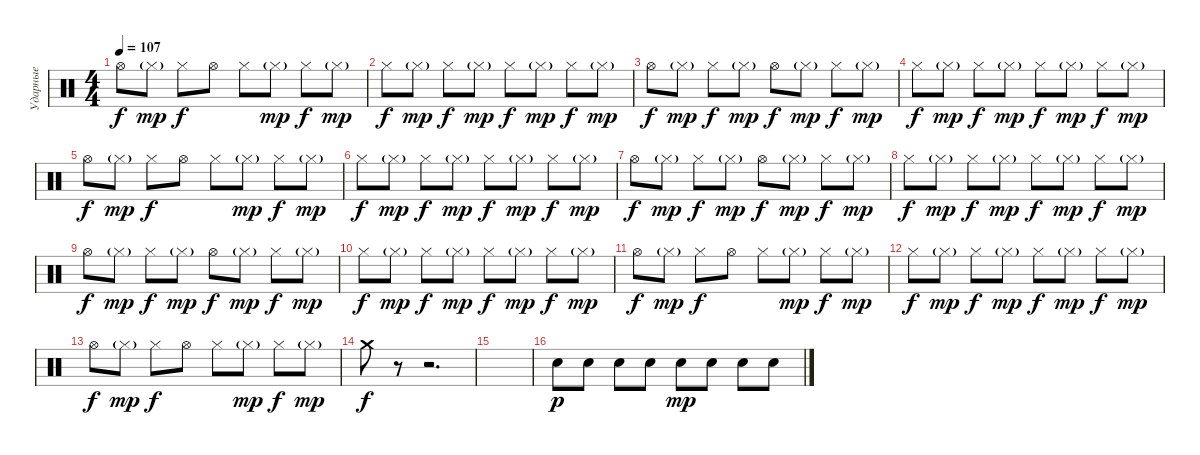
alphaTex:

\track ("Ударные" "Ударные") {instrument percussion}
\staff {score}
\articulation defaults
\ts (4 4)
\tempo 107
\clef neutral
\ks c "Hi-Hat (open)".8{dy f} "Hi-Hat (closed)"{g}.8{dy mp} "Hi-Hat (closed)".8{dy f} "Hi-Hat (open)".8 "Hi-Hat (closed)".8 "Hi-Hat (closed)"{g}.8{dy mp} "Hi-Hat (closed)".8{dy f} "Hi-Hat (closed)"{g}.8{dy mp}
|
"Hi-Hat (closed)".8{dy f} "Hi-Hat (closed)"{g}.8{dy mp} "Hi-Hat (closed)".8{dy f} "Hi-Hat (closed)"{g}.8{dy mp} "Hi-Hat (closed)".8{dy f} "Hi-Hat (closed)"{g}.8{dy mp} "Hi-Hat (closed)".8{dy f} "Hi-Hat (closed)"{g}.8{dy mp} |
"Hi-Hat (open)".8{dy f} "Hi-Hat (closed)"{g}.8{dy mp} "Hi-Hat (closed)".8{dy f} "Hi-Hat (closed)"{g}.8{dy mp} "Hi-Hat (open)".8{dy f} "Hi-Hat (closed)"{g}.8{dy mp} "Hi-Hat (closed)".8{dy f} "Hi-Hat (closed)"{g}.8{dy mp} |
"Hi-Hat (closed)".8{dy f} "Hi-Hat (closed)"{g}.8{dy mp} "Hi-Hat (closed)".8{dy f} "Hi-Hat (closed)"{g}.8{dy mp} "Hi-Hat (closed)".8{dy f} "Hi-Hat (closed)"{g}.8{dy mp} "Hi-Hat (closed)".8{dy f} "Hi-Hat (closed)"{g}.8{dy mp} |
"Hi-Hat (open)".8{dy f} "Hi-Hat (closed)"{g}.8{dy mp} "Hi-Hat (closed)".8{dy f} "Hi-Hat (open)".8 "Hi-Hat (closed)".8 "Hi-Hat (closed)"{g}.8{dy mp} "Hi-Hat (closed)".8{dy f} "Hi-Hat (closed)"{g}.8{dy mp} |
"Hi-Hat (closed)".8{dy f} "Hi-Hat (closed)"{g}.8{dy mp} "Hi-Hat (closed)".8{dy f} "Hi-Hat (closed)"{g}.8{dy mp} "Hi-Hat (closed)".8{dy f} "Hi-Hat (closed)"{g}.8{dy mp} "Hi-Hat (closed)".8{dy f} "Hi-Hat (closed)"{g}.8{dy mp} |
"Hi-Hat (open)".8{dy f} "Hi-Hat (closed)"{g}.8{dy mp} "Hi-Hat (closed)".8{dy f} "Hi-Hat (closed)"{g}.8{dy mp} "Hi-Hat (open)".8{dy f} "Hi-Hat (closed)"{g}.8{dy mp} "Hi-Hat (closed)".8{dy f} "Hi-Hat (closed)"{g}.8{dy mp} |
"Hi-Hat (closed)".8{dy f} "Hi-Hat (closed)"{g}.8{dy mp} "Hi-Hat (closed)".8{dy f} "Hi-Hat (closed)"{g}.8{dy mp} "Hi-Hat (closed)".8{dy f} "Hi-Hat (closed)"{g}.8{dy mp} "Hi-Hat (closed)".8{dy f} "Hi-Hat (closed)"{g}.8{dy mp} |
"Hi-Hat (open)".8{dy f} "Hi-Hat (closed)"{g}.8{dy mp} "Hi-Hat (closed)".8{dy f} "Hi-Hat (closed)"{g}.8{dy mp} "Hi-Hat (open)".8{dy f} "Hi-Hat (closed)"{g}.8{dy mp} "Hi-Hat (closed)".8{dy f} "Hi-Hat (closed)"{g}.8{dy mp} |
"Hi-Hat (closed)".8{dy f} "Hi-Hat (closed)"{g}.8{dy mp} "Hi-Hat (closed)".8{dy f} "Hi-Hat (closed)"{g}.8{dy mp} "Hi-Hat (closed)".8{dy f} "Hi-Hat (closed)"{g}.8{dy mp} "Hi-Hat (closed)".8{dy f} "Hi-Hat (closed)"{g}.8{dy mp} |
"Hi-Hat (open)".8{dy f} "Hi-Hat (closed)"{g}.8{dy mp} "Hi-Hat (closed)".8{dy f} "Hi-Hat (open)".8 "Hi-Hat (closed)".8 "Hi-Hat (closed)"{g}.8{dy mp} "Hi-Hat (closed)".8{dy f} "Hi-Hat (closed)"{g}.8{dy mp} |
"Hi-Hat (closed)".8{dy f} "Hi-Hat (closed)"{g}.8{dy mp} "Hi-Hat (closed)".8{dy f} "Hi-Hat (closed)"{g}.8{dy mp} "Hi-Hat (closed)".8{dy f} "Hi-Hat (closed)"{g}.8{dy mp} "Hi-Hat (closed)".8{dy f} "Hi-Hat (closed)"{g}.8{dy mp} |
"Hi-Hat (open)".8{dy f} "Hi-Hat (closed)"{g}.8{dy mp} "Hi-Hat (closed)".8{dy f} "Hi-Hat (open)".8 "Hi-Hat (closed)".8 "Hi-Hat (closed)"{g}.8{dy mp} "Hi-Hat (closed)".8{dy f} "Hi-Hat (closed)"{g}.8{dy mp} |
"Crash medium (hit)".8{dy f} r.8 r.2{d} |
|
"Snare (hit) 2".8{dy p} "Snare (hit) 2".8 "Snare (hit) 2".8 "Snare (hit) 2".8 "Snare (hit) 2".8{dy mp} "Snare (hit) 2".8 "Snare (hit) 2".8 "Snare (hit) 2".8
